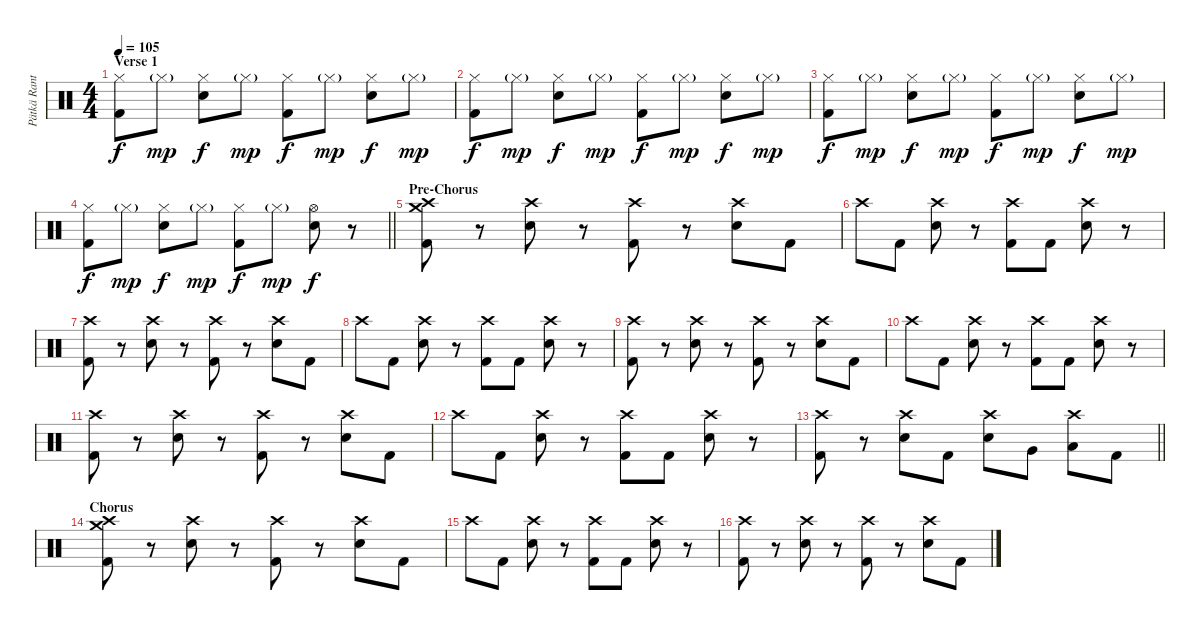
\track ("Pätkä Rantala (Drums)" "Pätkä Rant") {instrument percussion}
\staff {score}
\articulation defaults
\ts (4 4)
\section ("" "Verse 1")
\tempo 105
\clef neutral
\ks c
("Hi-Hat (closed)" "Kick (hit) 2").8{dy f} "Hi-Hat (closed)"{g}.8{dy mp} ("Hi-Hat (closed)" "Snare (hit) 2").8{dy f} "Hi-Hat (closed)"{g}.8{dy mp} ("Hi-Hat (closed)" "Kick (hit) 2").8{dy f} "Hi-Hat (closed)"{g}.8{dy mp} ("Hi-Hat (closed)" "Snare (hit) 2").8{dy f} "Hi-Hat (closed)"{g}.8{dy mp} |
("Hi-Hat (closed)" "Kick (hit) 2").8{dy f} "Hi-Hat (closed)"{g}.8{dy mp} ("Hi-Hat (closed)" "Snare (hit) 2").8{dy f} "Hi-Hat (closed)"{g}.8{dy mp} ("Hi-Hat (closed)" "Kick (hit) 2").8{dy f} "Hi-Hat (closed)"{g}.8{dy mp} ("Hi-Hat (closed)" "Snare (hit) 2").8{dy f} "Hi-Hat (closed)"{g}.8{dy mp} |
("Hi-Hat (closed)" "Kick (hit) 2").8{dy f} "Hi-Hat (closed)"{g}.8{dy mp} ("Hi-Hat (closed)" "Snare (hit) 2").8{dy f} "Hi-Hat (closed)"{g}.8{dy mp} ("Hi-Hat (closed)" "Kick (hit) 2").8{dy f} "Hi-Hat (closed)"{g}.8{dy mp} ("Hi-Hat (closed)" "Snare (hit) 2").8{dy f} "Hi-Hat (closed)"{g}.8{dy mp} |
\barLineRight lightlight
("Hi-Hat (closed)" "Kick (hit) 2").8{dy f} "Hi-Hat (closed)"{g}.8{dy mp} ("Hi-Hat (closed)" "Snare (hit) 2").8{dy f} "Hi-Hat (closed)"{g}.8{dy mp} ("Hi-Hat (closed)" "Kick (hit) 2").8{dy f} "Hi-Hat (closed)"{g}.8{dy mp} ("Hi-Hat (open)" "Snare (hit) 2").8{dy f} r.8 |
\section ("" "Pre-Chorus")
("Crash medium (hit)" "Crash high (hit)" "Kick (hit) 2").8 r.8 ("Crash high (hit)" "Snare (hit) 2").8 r.8 ("Crash high (hit)" "Kick (hit) 2").8 r.8 ("Crash high (hit)" "Snare (hit) 2").8 "Kick (hit) 2".8 |
"Crash high (hit)".8 "Kick (hit) 2".8 ("Crash high (hit)" "Snare (hit) 2").8 r.8 ("Crash high (hit)" "Kick (hit) 2").8 "Kick (hit) 2".8 ("Crash high (hit)" "Snare (hit) 2").8 r.8 |
("Crash high (hit)" "Kick (hit) 2").8 r.8 ("Crash high (hit)" "Snare (hit) 2").8 r.8 ("Crash high (hit)" "Kick (hit) 2").8 r.8 ("Crash high (hit)" "Snare (hit) 2").8 "Kick (hit) 2".8 |
"Crash high (hit)".8 "Kick (hit) 2".8 ("Crash high (hit)" "Snare (hit) 2").8 r.8 ("Crash high (hit)" "Kick (hit) 2").8 "Kick (hit) 2".8 ("Crash high (hit)" "Snare (hit) 2").8 r.8 |
("Crash high (hit)" "Kick (hit) 2").8 r.8 ("Crash high (hit)" "Snare (hit) 2").8 r.8 ("Crash high (hit)" "Kick (hit) 2").8 r.8 ("Crash high (hit)" "Snare (hit) 2").8 "Kick (hit) 2".8 |
"Crash high (hit)".8 "Kick (hit) 2".8 ("Crash high (hit)" "Snare (hit) 2").8 r.8 ("Crash high (hit)" "Kick (hit) 2").8 "Kick (hit) 2".8 ("Crash high (hit)" "Snare (hit) 2").8 r.8 |
("Crash high (hit)" "Kick (hit) 2").8 r.8 ("Crash high (hit)" "Snare (hit) 2").8 r.8 ("Crash high (hit)" "Kick (hit) 2").8 r.8 ("Crash high (hit)" "Snare (hit) 2").8 "Kick (hit) 2".8 |
"Crash high (hit)".8 "Kick (hit) 2".8 ("Crash high (hit)" "Snare (hit) 2").8 r.8 ("Crash high (hit)" "Kick (hit) 2").8 "Kick (hit) 2".8 ("Crash high (hit)" "Snare (hit) 2").8 r.8 |
\barLineRight lightlight
("Crash high (hit)" "Kick (hit) 2").8 r.8 ("Crash high (hit)" "Snare (hit) 2").8 "Kick (hit) 2".8 ("Crash high (hit)" "Snare (hit) 2").8 "Very Low Tom (hit)".8 ("Crash high (hit)" "Low Floor Tom (hit)").8 "Kick (hit) 2".8 |
\section ("" "Chorus")
("Crash medium (hit)" "Crash high (hit)" "Kick (hit) 2").8 r.8 ("Crash high (hit)" "Snare (hit) 2").8 r.8 ("Crash high (hit)" "Kick (hit) 2").8 r.8 ("Crash high (hit)" "Snare (hit) 2").8 "Kick (hit) 2".8 |
"Crash high (hit)".8 "Kick (hit) 2".8 ("Crash high (hit)" "Snare (hit) 2").8 r.8 ("Crash high (hit)" "Kick (hit) 2").8 "Kick (hit) 2".8 ("Crash high (hit)" "Snare (hit) 2").8 r.8 |
("Crash high (hit)" "Kick (hit) 2").8 r.8 ("Crash high (hit)" "Snare (hit) 2").8 r.8 ("Crash high (hit)" "Kick (hit) 2").8 r.8 ("Crash high (hit)" "Snare (hit) 2").8 "Kick (hit) 2".8
